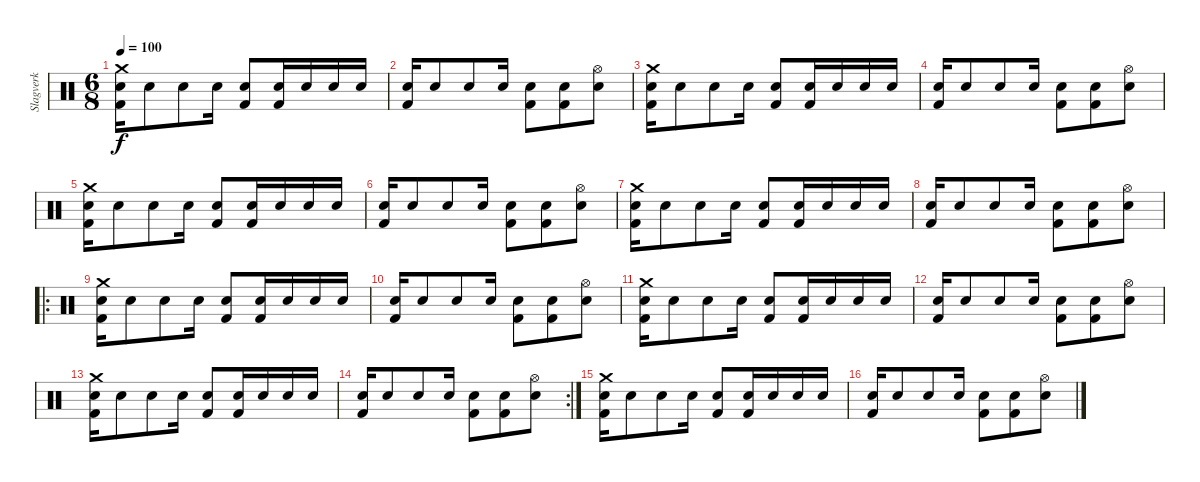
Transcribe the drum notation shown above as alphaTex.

\track ("Slagverk" "Slagverk") {instrument percussion}
\staff {score}
\articulation defaults
\ts (6 8)
\tempo 100
\clef neutral
\ks c
("Crash medium (hit)" "Electric Snare (hit)" "Kick (hit) 2").16{dy f} "Electric Snare (hit)".8 "Electric Snare (hit)".8 "Electric Snare (hit)".16 ("Electric Snare (hit)" "Kick (hit) 2").8 ("Electric Snare (hit)" "Kick (hit) 2").16 "Electric Snare (hit)".16 "Electric Snare (hit)".16 "Electric Snare (hit)".16 |
("Electric Snare (hit)" "Kick (hit) 2").16 "Electric Snare (hit)".8 "Electric Snare (hit)".8 "Electric Snare (hit)".16 ("Electric Snare (hit)" "Kick (hit) 2").8 ("Electric Snare (hit)" "Kick (hit) 2").8 ("Hi-Hat (open)" "Electric Snare (hit)").8 |
("Crash medium (hit)" "Electric Snare (hit)" "Kick (hit) 2").16 "Electric Snare (hit)".8 "Electric Snare (hit)".8 "Electric Snare (hit)".16 ("Electric Snare (hit)" "Kick (hit) 2").8 ("Electric Snare (hit)" "Kick (hit) 2").16 "Electric Snare (hit)".16 "Electric Snare (hit)".16 "Electric Snare (hit)".16 |
("Electric Snare (hit)" "Kick (hit) 2").16 "Electric Snare (hit)".8 "Electric Snare (hit)".8 "Electric Snare (hit)".16 ("Electric Snare (hit)" "Kick (hit) 2").8 ("Electric Snare (hit)" "Kick (hit) 2").8 ("Hi-Hat (open)" "Electric Snare (hit)").8 |
("Crash medium (hit)" "Electric Snare (hit)" "Kick (hit) 2").16 "Electric Snare (hit)".8 "Electric Snare (hit)".8 "Electric Snare (hit)".16 ("Electric Snare (hit)" "Kick (hit) 2").8 ("Electric Snare (hit)" "Kick (hit) 2").16 "Electric Snare (hit)".16 "Electric Snare (hit)".16 "Electric Snare (hit)".16 |
("Electric Snare (hit)" "Kick (hit) 2").16 "Electric Snare (hit)".8 "Electric Snare (hit)".8 "Electric Snare (hit)".16 ("Electric Snare (hit)" "Kick (hit) 2").8 ("Electric Snare (hit)" "Kick (hit) 2").8 ("Hi-Hat (open)" "Electric Snare (hit)").8 |
("Crash medium (hit)" "Electric Snare (hit)" "Kick (hit) 2").16 "Electric Snare (hit)".8 "Electric Snare (hit)".8 "Electric Snare (hit)".16 ("Electric Snare (hit)" "Kick (hit) 2").8 ("Electric Snare (hit)" "Kick (hit) 2").16 "Electric Snare (hit)".16 "Electric Snare (hit)".16 "Electric Snare (hit)".16 |
("Electric Snare (hit)" "Kick (hit) 2").16 "Electric Snare (hit)".8 "Electric Snare (hit)".8 "Electric Snare (hit)".16 ("Electric Snare (hit)" "Kick (hit) 2").8 ("Electric Snare (hit)" "Kick (hit) 2").8 ("Hi-Hat (open)" "Electric Snare (hit)").8 |
\ro
("Crash medium (hit)" "Electric Snare (hit)" "Kick (hit) 2").16 "Electric Snare (hit)".8 "Electric Snare (hit)".8 "Electric Snare (hit)".16 ("Electric Snare (hit)" "Kick (hit) 2").8 ("Electric Snare (hit)" "Kick (hit) 2").16 "Electric Snare (hit)".16 "Electric Snare (hit)".16 "Electric Snare (hit)".16 |
("Electric Snare (hit)" "Kick (hit) 2").16 "Electric Snare (hit)".8 "Electric Snare (hit)".8 "Electric Snare (hit)".16 ("Electric Snare (hit)" "Kick (hit) 2").8 ("Electric Snare (hit)" "Kick (hit) 2").8 ("Hi-Hat (open)" "Electric Snare (hit)").8 |
("Crash medium (hit)" "Electric Snare (hit)" "Kick (hit) 2").16 "Electric Snare (hit)".8 "Electric Snare (hit)".8 "Electric Snare (hit)".16 ("Electric Snare (hit)" "Kick (hit) 2").8 ("Electric Snare (hit)" "Kick (hit) 2").16 "Electric Snare (hit)".16 "Electric Snare (hit)".16 "Electric Snare (hit)".16 |
("Electric Snare (hit)" "Kick (hit) 2").16 "Electric Snare (hit)".8 "Electric Snare (hit)".8 "Electric Snare (hit)".16 ("Electric Snare (hit)" "Kick (hit) 2").8 ("Electric Snare (hit)" "Kick (hit) 2").8 ("Hi-Hat (open)" "Electric Snare (hit)").8 |
("Crash medium (hit)" "Electric Snare (hit)" "Kick (hit) 2").16 "Electric Snare (hit)".8 "Electric Snare (hit)".8 "Electric Snare (hit)".16 ("Electric Snare (hit)" "Kick (hit) 2").8 ("Electric Snare (hit)" "Kick (hit) 2").16 "Electric Snare (hit)".16 "Electric Snare (hit)".16 "Electric Snare (hit)".16 |
\rc 2
("Electric Snare (hit)" "Kick (hit) 2").16 "Electric Snare (hit)".8 "Electric Snare (hit)".8 "Electric Snare (hit)".16 ("Electric Snare (hit)" "Kick (hit) 2").8 ("Electric Snare (hit)" "Kick (hit) 2").8 ("Hi-Hat (open)" "Electric Snare (hit)").8 |
("Crash medium (hit)" "Electric Snare (hit)" "Kick (hit) 2").16 "Electric Snare (hit)".8 "Electric Snare (hit)".8 "Electric Snare (hit)".16 ("Electric Snare (hit)" "Kick (hit) 2").8 ("Electric Snare (hit)" "Kick (hit) 2").16 "Electric Snare (hit)".16 "Electric Snare (hit)".16 "Electric Snare (hit)".16 |
("Electric Snare (hit)" "Kick (hit) 2").16 "Electric Snare (hit)".8 "Electric Snare (hit)".8 "Electric Snare (hit)".16 ("Electric Snare (hit)" "Kick (hit) 2").8 ("Electric Snare (hit)" "Kick (hit) 2").8 ("Hi-Hat (open)" "Electric Snare (hit)").8
